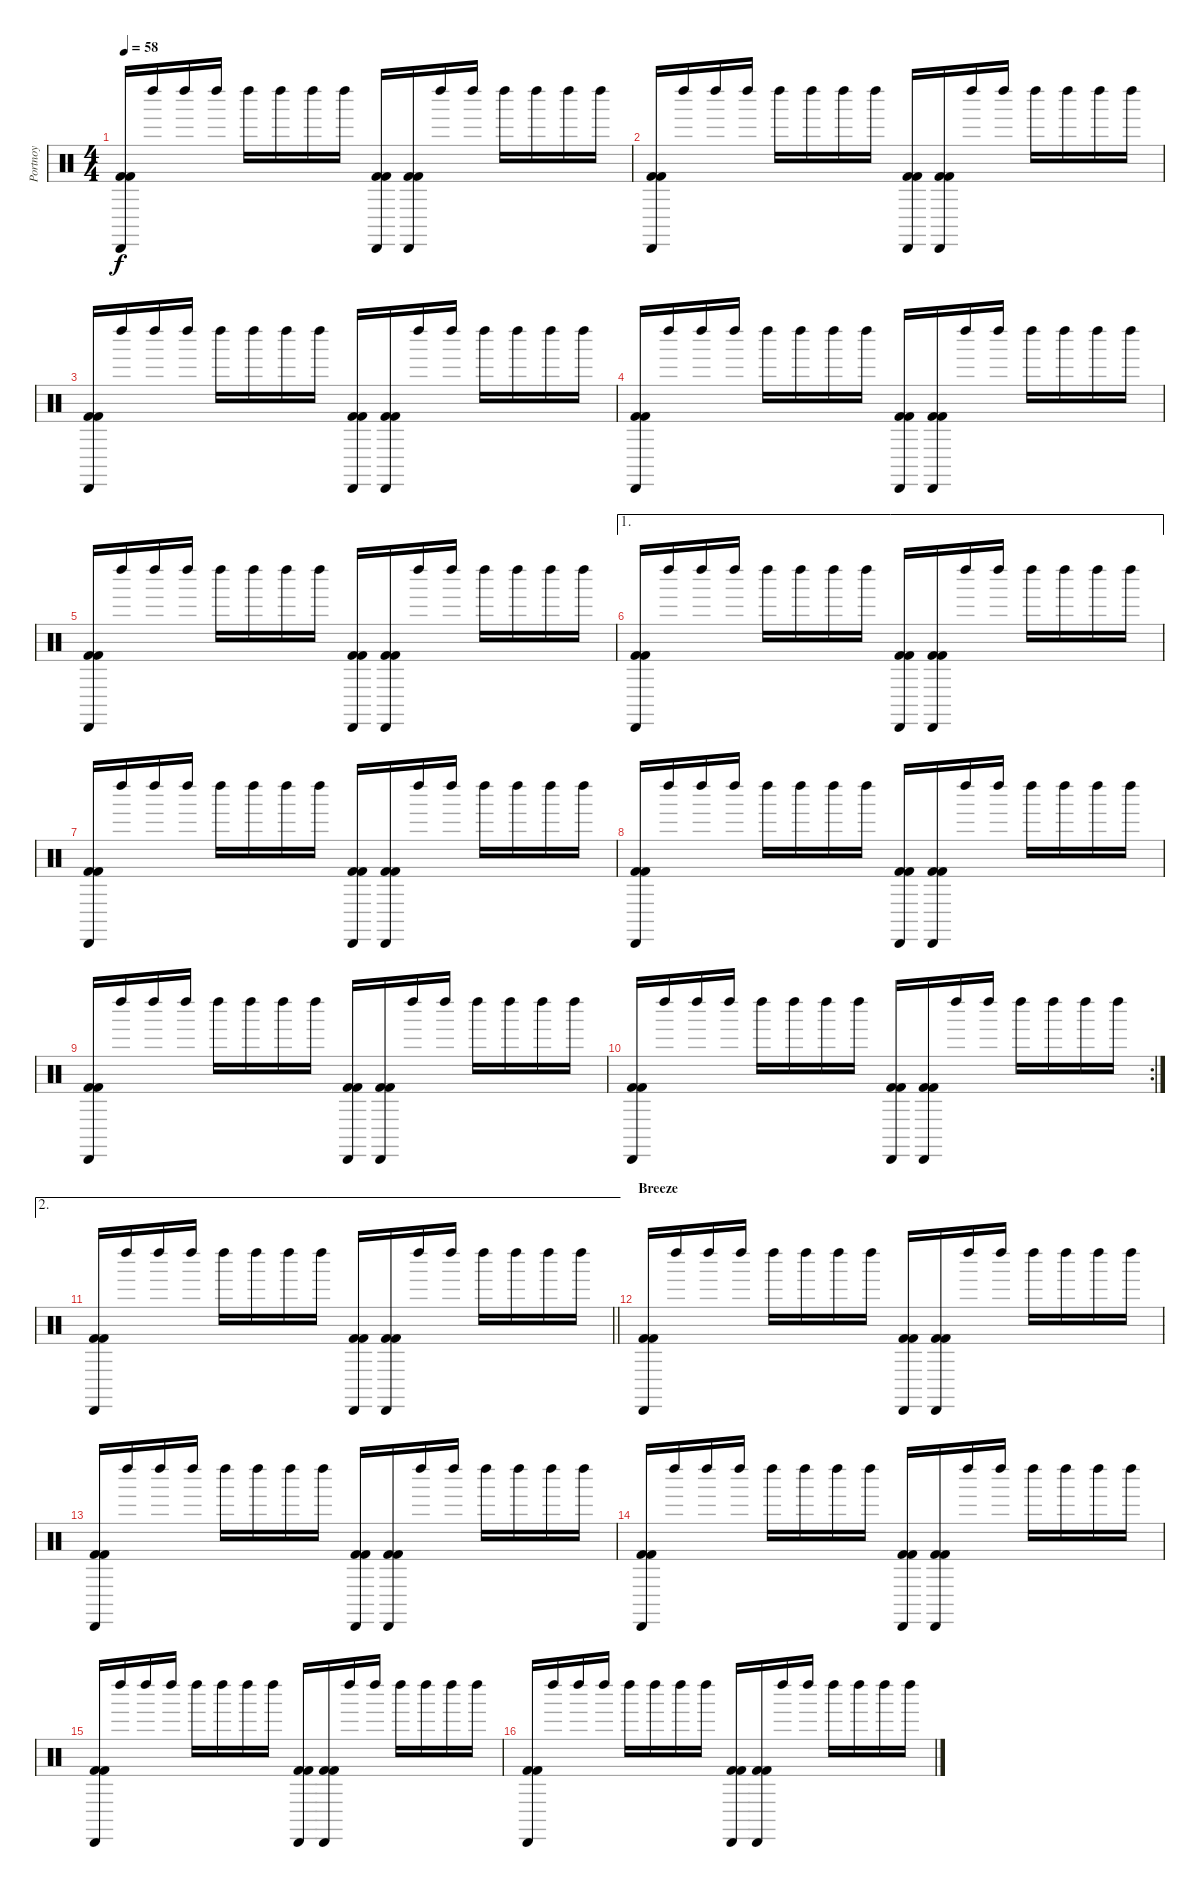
\track ("Portnoy" "Portnoy") {instrument percussion}
\staff {score}
\articulation defaults
\ts (4 4)
\tempo 58
\clef neutral
\ks c
("Cabasa (hit)" "Kick (hit) 2" "Kick (hit) 2").16{dy f} "Left Maraca (hit)".16 "Left Maraca (hit)".16 "Left Maraca (hit)".16 "Left Maraca (hit)".16 "Left Maraca (hit)".16 "Left Maraca (hit)".16 "Left Maraca (hit)".16 ("Cabasa (hit)" "Kick (hit) 2" "Kick (hit) 2").16 ("Cabasa (hit)" "Kick (hit) 2" "Kick (hit) 2").16 "Left Maraca (hit)".16 "Left Maraca (hit)".16 "Left Maraca (hit)".16 "Left Maraca (hit)".16 "Left Maraca (hit)".16 "Left Maraca (hit)".16 |
("Cabasa (hit)" "Kick (hit) 2" "Kick (hit) 2").16 "Left Maraca (hit)".16 "Left Maraca (hit)".16 "Left Maraca (hit)".16 "Left Maraca (hit)".16 "Left Maraca (hit)".16 "Left Maraca (hit)".16 "Left Maraca (hit)".16 ("Cabasa (hit)" "Kick (hit) 2" "Kick (hit) 2").16 ("Cabasa (hit)" "Kick (hit) 2" "Kick (hit) 2").16 "Left Maraca (hit)".16 "Left Maraca (hit)".16 "Left Maraca (hit)".16 "Left Maraca (hit)".16 "Left Maraca (hit)".16 "Left Maraca (hit)".16 |
("Cabasa (hit)" "Kick (hit) 2" "Kick (hit) 2").16 "Left Maraca (hit)".16 "Left Maraca (hit)".16 "Left Maraca (hit)".16 "Left Maraca (hit)".16 "Left Maraca (hit)".16 "Left Maraca (hit)".16 "Left Maraca (hit)".16 ("Cabasa (hit)" "Kick (hit) 2" "Kick (hit) 2").16 ("Cabasa (hit)" "Kick (hit) 2" "Kick (hit) 2").16 "Left Maraca (hit)".16 "Left Maraca (hit)".16 "Left Maraca (hit)".16 "Left Maraca (hit)".16 "Left Maraca (hit)".16 "Left Maraca (hit)".16 |
("Cabasa (hit)" "Kick (hit) 2" "Kick (hit) 2").16 "Left Maraca (hit)".16 "Left Maraca (hit)".16 "Left Maraca (hit)".16 "Left Maraca (hit)".16 "Left Maraca (hit)".16 "Left Maraca (hit)".16 "Left Maraca (hit)".16 ("Cabasa (hit)" "Kick (hit) 2" "Kick (hit) 2").16 ("Cabasa (hit)" "Kick (hit) 2" "Kick (hit) 2").16 "Left Maraca (hit)".16 "Left Maraca (hit)".16 "Left Maraca (hit)".16 "Left Maraca (hit)".16 "Left Maraca (hit)".16 "Left Maraca (hit)".16 |
("Cabasa (hit)" "Kick (hit) 2" "Kick (hit) 2").16 "Left Maraca (hit)".16 "Left Maraca (hit)".16 "Left Maraca (hit)".16 "Left Maraca (hit)".16 "Left Maraca (hit)".16 "Left Maraca (hit)".16 "Left Maraca (hit)".16 ("Cabasa (hit)" "Kick (hit) 2" "Kick (hit) 2").16 ("Cabasa (hit)" "Kick (hit) 2" "Kick (hit) 2").16 "Left Maraca (hit)".16 "Left Maraca (hit)".16 "Left Maraca (hit)".16 "Left Maraca (hit)".16 "Left Maraca (hit)".16 "Left Maraca (hit)".16 |
\ae 1
("Cabasa (hit)" "Kick (hit) 2" "Kick (hit) 2").16 "Left Maraca (hit)".16 "Left Maraca (hit)".16 "Left Maraca (hit)".16 "Left Maraca (hit)".16 "Left Maraca (hit)".16 "Left Maraca (hit)".16 "Left Maraca (hit)".16 ("Cabasa (hit)" "Kick (hit) 2" "Kick (hit) 2").16 ("Cabasa (hit)" "Kick (hit) 2" "Kick (hit) 2").16 "Left Maraca (hit)".16 "Left Maraca (hit)".16 "Left Maraca (hit)".16 "Left Maraca (hit)".16 "Left Maraca (hit)".16 "Left Maraca (hit)".16 |
("Cabasa (hit)" "Kick (hit) 2" "Kick (hit) 2").16 "Left Maraca (hit)".16 "Left Maraca (hit)".16 "Left Maraca (hit)".16 "Left Maraca (hit)".16 "Left Maraca (hit)".16 "Left Maraca (hit)".16 "Left Maraca (hit)".16 ("Cabasa (hit)" "Kick (hit) 2" "Kick (hit) 2").16 ("Cabasa (hit)" "Kick (hit) 2" "Kick (hit) 2").16 "Left Maraca (hit)".16 "Left Maraca (hit)".16 "Left Maraca (hit)".16 "Left Maraca (hit)".16 "Left Maraca (hit)".16 "Left Maraca (hit)".16 |
("Cabasa (hit)" "Kick (hit) 2" "Kick (hit) 2").16 "Left Maraca (hit)".16 "Left Maraca (hit)".16 "Left Maraca (hit)".16 "Left Maraca (hit)".16 "Left Maraca (hit)".16 "Left Maraca (hit)".16 "Left Maraca (hit)".16 ("Cabasa (hit)" "Kick (hit) 2" "Kick (hit) 2").16 ("Cabasa (hit)" "Kick (hit) 2" "Kick (hit) 2").16 "Left Maraca (hit)".16 "Left Maraca (hit)".16 "Left Maraca (hit)".16 "Left Maraca (hit)".16 "Left Maraca (hit)".16 "Left Maraca (hit)".16 |
("Cabasa (hit)" "Kick (hit) 2" "Kick (hit) 2").16 "Left Maraca (hit)".16 "Left Maraca (hit)".16 "Left Maraca (hit)".16 "Left Maraca (hit)".16 "Left Maraca (hit)".16 "Left Maraca (hit)".16 "Left Maraca (hit)".16 ("Cabasa (hit)" "Kick (hit) 2" "Kick (hit) 2").16 ("Cabasa (hit)" "Kick (hit) 2" "Kick (hit) 2").16 "Left Maraca (hit)".16 "Left Maraca (hit)".16 "Left Maraca (hit)".16 "Left Maraca (hit)".16 "Left Maraca (hit)".16 "Left Maraca (hit)".16 |
\rc 2
("Cabasa (hit)" "Kick (hit) 2" "Kick (hit) 2").16 "Left Maraca (hit)".16 "Left Maraca (hit)".16 "Left Maraca (hit)".16 "Left Maraca (hit)".16 "Left Maraca (hit)".16 "Left Maraca (hit)".16 "Left Maraca (hit)".16 ("Cabasa (hit)" "Kick (hit) 2" "Kick (hit) 2").16 ("Cabasa (hit)" "Kick (hit) 2" "Kick (hit) 2").16 "Left Maraca (hit)".16 "Left Maraca (hit)".16 "Left Maraca (hit)".16 "Left Maraca (hit)".16 "Left Maraca (hit)".16 "Left Maraca (hit)".16 |
\ae 2
\barLineRight lightlight
("Cabasa (hit)" "Kick (hit) 2" "Kick (hit) 2").16 "Left Maraca (hit)".16 "Left Maraca (hit)".16 "Left Maraca (hit)".16 "Left Maraca (hit)".16 "Left Maraca (hit)".16 "Left Maraca (hit)".16 "Left Maraca (hit)".16 ("Cabasa (hit)" "Kick (hit) 2" "Kick (hit) 2").16 ("Cabasa (hit)" "Kick (hit) 2" "Kick (hit) 2").16 "Left Maraca (hit)".16 "Left Maraca (hit)".16 "Left Maraca (hit)".16 "Left Maraca (hit)".16 "Left Maraca (hit)".16 "Left Maraca (hit)".16 |
\section ("" "Breeze")
("Cabasa (hit)" "Kick (hit) 2" "Kick (hit) 2").16 "Left Maraca (hit)".16 "Left Maraca (hit)".16 "Left Maraca (hit)".16 "Left Maraca (hit)".16 "Left Maraca (hit)".16 "Left Maraca (hit)".16 "Left Maraca (hit)".16 ("Cabasa (hit)" "Kick (hit) 2" "Kick (hit) 2").16 ("Cabasa (hit)" "Kick (hit) 2" "Kick (hit) 2").16 "Left Maraca (hit)".16 "Left Maraca (hit)".16 "Left Maraca (hit)".16 "Left Maraca (hit)".16 "Left Maraca (hit)".16 "Left Maraca (hit)".16 |
("Cabasa (hit)" "Kick (hit) 2" "Kick (hit) 2").16 "Left Maraca (hit)".16 "Left Maraca (hit)".16 "Left Maraca (hit)".16 "Left Maraca (hit)".16 "Left Maraca (hit)".16 "Left Maraca (hit)".16 "Left Maraca (hit)".16 ("Cabasa (hit)" "Kick (hit) 2" "Kick (hit) 2").16 ("Cabasa (hit)" "Kick (hit) 2" "Kick (hit) 2").16 "Left Maraca (hit)".16 "Left Maraca (hit)".16 "Left Maraca (hit)".16 "Left Maraca (hit)".16 "Left Maraca (hit)".16 "Left Maraca (hit)".16 |
("Cabasa (hit)" "Kick (hit) 2" "Kick (hit) 2").16 "Left Maraca (hit)".16 "Left Maraca (hit)".16 "Left Maraca (hit)".16 "Left Maraca (hit)".16 "Left Maraca (hit)".16 "Left Maraca (hit)".16 "Left Maraca (hit)".16 ("Cabasa (hit)" "Kick (hit) 2" "Kick (hit) 2").16 ("Cabasa (hit)" "Kick (hit) 2" "Kick (hit) 2").16 "Left Maraca (hit)".16 "Left Maraca (hit)".16 "Left Maraca (hit)".16 "Left Maraca (hit)".16 "Left Maraca (hit)".16 "Left Maraca (hit)".16 |
("Cabasa (hit)" "Kick (hit) 2" "Kick (hit) 2").16 "Left Maraca (hit)".16 "Left Maraca (hit)".16 "Left Maraca (hit)".16 "Left Maraca (hit)".16 "Left Maraca (hit)".16 "Left Maraca (hit)".16 "Left Maraca (hit)".16 ("Cabasa (hit)" "Kick (hit) 2" "Kick (hit) 2").16 ("Cabasa (hit)" "Kick (hit) 2" "Kick (hit) 2").16 "Left Maraca (hit)".16 "Left Maraca (hit)".16 "Left Maraca (hit)".16 "Left Maraca (hit)".16 "Left Maraca (hit)".16 "Left Maraca (hit)".16 |
("Cabasa (hit)" "Kick (hit) 2" "Kick (hit) 2").16 "Left Maraca (hit)".16 "Left Maraca (hit)".16 "Left Maraca (hit)".16 "Left Maraca (hit)".16 "Left Maraca (hit)".16 "Left Maraca (hit)".16 "Left Maraca (hit)".16 ("Cabasa (hit)" "Kick (hit) 2" "Kick (hit) 2").16 ("Cabasa (hit)" "Kick (hit) 2" "Kick (hit) 2").16 "Left Maraca (hit)".16 "Left Maraca (hit)".16 "Left Maraca (hit)".16 "Left Maraca (hit)".16 "Left Maraca (hit)".16 "Left Maraca (hit)".16
